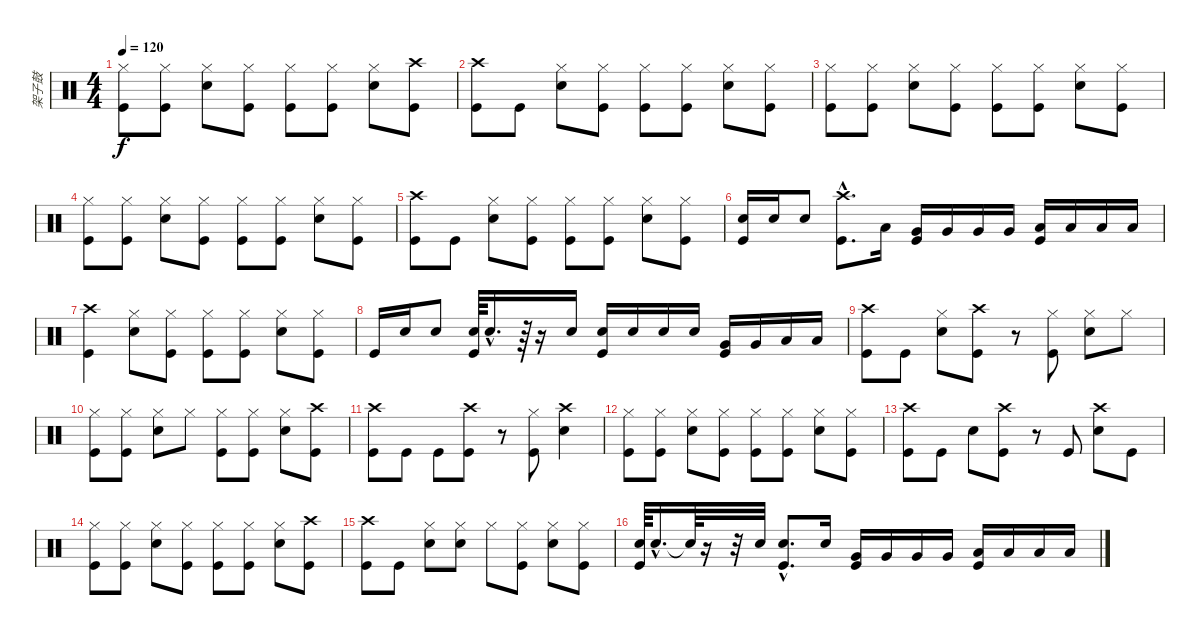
\track ("架子鼓" "架子鼓") {instrument percussion}
\staff {score}
\articulation defaults
\ts (4 4)
\tempo 120
\clef neutral
\ks c
("Hi-Hat (closed)" "Kick (hit)").8{dy f} ("Hi-Hat (closed)" "Kick (hit)").8 ("Hi-Hat (closed)" "Snare (hit) 2").8 ("Hi-Hat (closed)" "Kick (hit)").8 ("Hi-Hat (closed)" "Kick (hit)").8 ("Hi-Hat (closed)" "Kick (hit)").8 ("Hi-Hat (closed)" "Snare (hit) 2").8 ("Crash high (hit)" "Kick (hit)").8 |
("Crash high (hit)" "Kick (hit)").8 "Kick (hit)".8 ("Hi-Hat (closed)" "Snare (hit) 2").8 ("Hi-Hat (closed)" "Kick (hit)").8 ("Hi-Hat (closed)" "Kick (hit)").8 ("Hi-Hat (closed)" "Kick (hit)").8 ("Hi-Hat (closed)" "Snare (hit) 2").8 ("Hi-Hat (closed)" "Kick (hit)").8 |
("Hi-Hat (closed)" "Kick (hit)").8 ("Hi-Hat (closed)" "Kick (hit)").8 ("Hi-Hat (closed)" "Snare (hit) 2").8 ("Hi-Hat (closed)" "Kick (hit)").8 ("Hi-Hat (closed)" "Kick (hit)").8 ("Hi-Hat (closed)" "Kick (hit)").8 ("Hi-Hat (closed)" "Snare (hit) 2").8 ("Hi-Hat (closed)" "Kick (hit)").8 |
("Hi-Hat (closed)" "Kick (hit)").8 ("Hi-Hat (closed)" "Kick (hit)").8 ("Hi-Hat (closed)" "Snare (hit) 2").8 ("Hi-Hat (closed)" "Kick (hit)").8 ("Hi-Hat (closed)" "Kick (hit)").8 ("Hi-Hat (closed)" "Kick (hit)").8 ("Hi-Hat (closed)" "Snare (hit) 2").8 ("Hi-Hat (closed)" "Kick (hit)").8 |
("Crash high (hit)" "Kick (hit)").8 "Kick (hit)".8 ("Hi-Hat (closed)" "Snare (hit) 2").8 ("Hi-Hat (closed)" "Kick (hit)").8 ("Hi-Hat (closed)" "Kick (hit)").8 ("Hi-Hat (closed)" "Kick (hit)").8 ("Hi-Hat (closed)" "Snare (hit) 2").8 ("Hi-Hat (closed)" "Kick (hit)").8 |
("Snare (hit) 2" "Kick (hit)").16 "Snare (hit) 2".16 "Snare (hit) 2".8 ("Crash high (hit)"{hac} "Kick (hit)"{hac}).8{d} "Low Tom (hit)".16 ("Kick (hit)" "Very Low Tom (hit)").16 "Very Low Tom (hit)".16 "Very Low Tom (hit)".16 "Very Low Tom (hit)".16 ("Kick (hit)" "Low Floor Tom (hit)").16 "Low Floor Tom (hit)".16 "Low Floor Tom (hit)".16 "Low Floor Tom (hit)".16 |
("Crash high (hit)" "Kick (hit)").4 ("Hi-Hat (closed)" "Snare (hit) 2").8 ("Hi-Hat (closed)" "Kick (hit)").8 ("Hi-Hat (closed)" "Kick (hit)").8 ("Hi-Hat (closed)" "Kick (hit)").8 ("Hi-Hat (closed)" "Snare (hit) 2").8 ("Hi-Hat (closed)" "Kick (hit)").8 |
"Kick (hit)".16 "Snare (hit) 2".16 "Snare (hit) 2".8 ("Snare (hit) 2" "Kick (hit)").64 "Snare (hit) 2"{hac}.16{d} r.64 r.16 "Snare (hit) 2".16 ("Snare (hit) 2" "Kick (hit)").16 "Snare (hit) 2".16 "Snare (hit) 2".16 "Snare (hit) 2".16 ("Kick (hit)" "Very Low Tom (hit)").16 "Very Low Tom (hit)".16 "Low Floor Tom (hit)".16 "Low Floor Tom (hit)".16 |
("Crash high (hit)" "Kick (hit)").8 "Kick (hit)".8 ("Hi-Hat (closed)" "Snare (hit) 2").8 ("Crash high (hit)" "Kick (hit)").8 r.8 ("Hi-Hat (closed)" "Kick (hit)").8 ("Hi-Hat (closed)" "Snare (hit) 2").8 "Hi-Hat (closed)".8 |
("Hi-Hat (closed)" "Kick (hit)").8 ("Hi-Hat (closed)" "Kick (hit)").8 ("Hi-Hat (closed)" "Snare (hit) 2").8 "Hi-Hat (closed)".8 ("Hi-Hat (closed)" "Kick (hit)").8 ("Hi-Hat (closed)" "Kick (hit)").8 ("Hi-Hat (closed)" "Snare (hit) 2").8 ("Crash high (hit)" "Kick (hit)").8 |
("Crash high (hit)" "Kick (hit)").8 "Kick (hit)".8 "Kick (hit)".8 ("Crash high (hit)" "Kick (hit)").8 r.8 ("Hi-Hat (closed)" "Kick (hit)").8 ("Crash high (hit)" "Snare (hit) 2").4 |
("Hi-Hat (closed)" "Kick (hit)").8 ("Hi-Hat (closed)" "Kick (hit)").8 ("Hi-Hat (closed)" "Snare (hit) 2").8 ("Hi-Hat (closed)" "Kick (hit)").8 ("Hi-Hat (closed)" "Kick (hit)").8 ("Hi-Hat (closed)" "Kick (hit)").8 ("Hi-Hat (closed)" "Snare (hit) 2").8 ("Hi-Hat (closed)" "Kick (hit)").8 |
("Crash high (hit)" "Kick (hit)").8 "Kick (hit)".8 "Snare (hit) 2".8 ("Crash high (hit)" "Kick (hit)").8 r.8 "Kick (hit)".8 ("Crash high (hit)" "Snare (hit) 2").8 "Kick (hit)".8 |
("Hi-Hat (closed)" "Kick (hit)").8 ("Hi-Hat (closed)" "Kick (hit)").8 ("Hi-Hat (closed)" "Snare (hit) 2").8 ("Hi-Hat (closed)" "Kick (hit)").8 ("Hi-Hat (closed)" "Kick (hit)").8 ("Hi-Hat (closed)" "Kick (hit)").8 ("Hi-Hat (closed)" "Snare (hit) 2").8 ("Crash high (hit)" "Kick (hit)").8 |
("Crash high (hit)" "Kick (hit)").8 "Kick (hit)".8 ("Hi-Hat (closed)" "Snare (hit) 2").8 ("Hi-Hat (closed)" "Snare (hit) 2").8 "Hi-Hat (closed)".8 ("Hi-Hat (closed)" "Kick (hit)").8 ("Hi-Hat (closed)" "Snare (hit) 2").8 ("Hi-Hat (closed)" "Kick (hit)").8 |
("Snare (hit) 2" "Kick (hit)").64 "Snare (hit) 2"{hac}.16{d} "Snare (hit)"{t}.64 r.16 r.32 "Snare (hit) 2".32 ("Snare (hit) 2"{hac} "Kick (hit)"{hac}).8{d} "Snare (hit) 2".16 ("Kick (hit)" "Very Low Tom (hit)").16 "Very Low Tom (hit)".16 "Very Low Tom (hit)".16 "Very Low Tom (hit)".16 ("Kick (hit)" "Low Floor Tom (hit)").16 "Low Floor Tom (hit)".16 "Low Floor Tom (hit)".16 "Low Floor Tom (hit)".16
